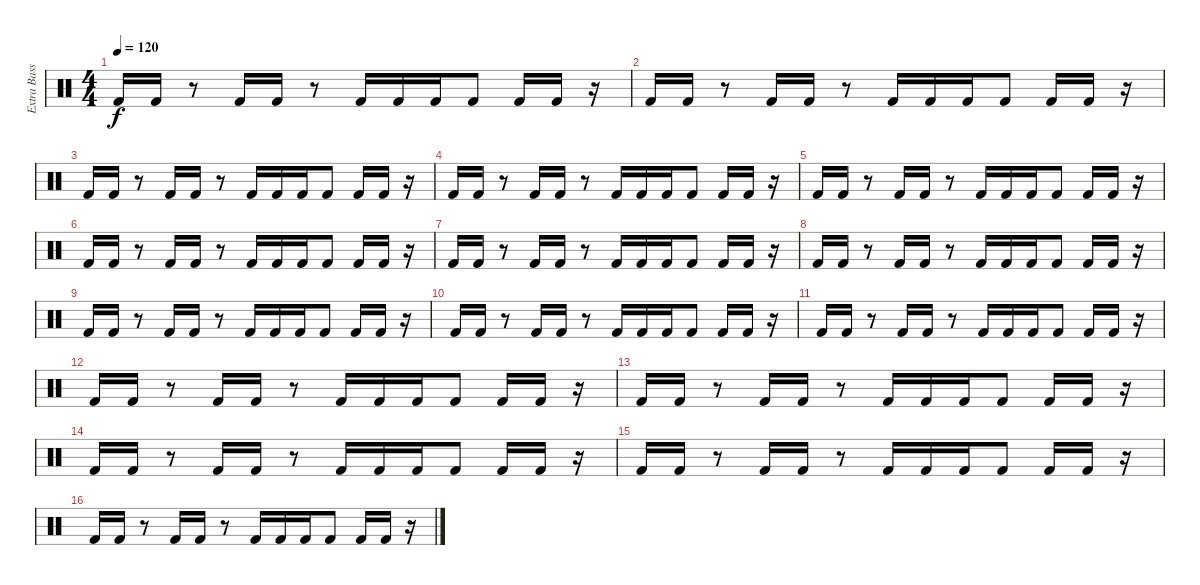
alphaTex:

\track ("Extra Bass Drum" "Extra Bass") {instrument percussion}
\staff {score}
\articulation defaults
\ts (4 4)
\tempo 120
\clef neutral
\ks c "Kick (hit) 2".16{dy f} "Kick (hit) 2".16
r.8 "Kick (hit) 2".16 "Kick (hit) 2".16 r.8 "Kick (hit) 2".16 "Kick (hit) 2".16 "Kick (hit) 2".16 "Kick (hit) 2".8 "Kick (hit) 2".16 "Kick (hit) 2".16 r.16 |
"Kick (hit) 2".16 "Kick (hit) 2".16 r.8 "Kick (hit) 2".16 "Kick (hit) 2".16 r.8 "Kick (hit) 2".16 "Kick (hit) 2".16 "Kick (hit) 2".16 "Kick (hit) 2".8 "Kick (hit) 2".16 "Kick (hit) 2".16 r.16 |
"Kick (hit) 2".16 "Kick (hit) 2".16 r.8 "Kick (hit) 2".16 "Kick (hit) 2".16 r.8 "Kick (hit) 2".16 "Kick (hit) 2".16 "Kick (hit) 2".16 "Kick (hit) 2".8 "Kick (hit) 2".16 "Kick (hit) 2".16 r.16 |
"Kick (hit) 2".16 "Kick (hit) 2".16 r.8 "Kick (hit) 2".16 "Kick (hit) 2".16 r.8 "Kick (hit) 2".16 "Kick (hit) 2".16 "Kick (hit) 2".16 "Kick (hit) 2".8 "Kick (hit) 2".16 "Kick (hit) 2".16 r.16 |
"Kick (hit) 2".16 "Kick (hit) 2".16 r.8 "Kick (hit) 2".16 "Kick (hit) 2".16 r.8 "Kick (hit) 2".16 "Kick (hit) 2".16 "Kick (hit) 2".16 "Kick (hit) 2".8 "Kick (hit) 2".16 "Kick (hit) 2".16 r.16 |
"Kick (hit) 2".16 "Kick (hit) 2".16 r.8 "Kick (hit) 2".16 "Kick (hit) 2".16 r.8 "Kick (hit) 2".16 "Kick (hit) 2".16 "Kick (hit) 2".16 "Kick (hit) 2".8 "Kick (hit) 2".16 "Kick (hit) 2".16 r.16 |
"Kick (hit) 2".16 "Kick (hit) 2".16 r.8 "Kick (hit) 2".16 "Kick (hit) 2".16 r.8 "Kick (hit) 2".16 "Kick (hit) 2".16 "Kick (hit) 2".16 "Kick (hit) 2".8 "Kick (hit) 2".16 "Kick (hit) 2".16 r.16 |
"Kick (hit) 2".16 "Kick (hit) 2".16 r.8 "Kick (hit) 2".16 "Kick (hit) 2".16 r.8 "Kick (hit) 2".16 "Kick (hit) 2".16 "Kick (hit) 2".16 "Kick (hit) 2".8 "Kick (hit) 2".16 "Kick (hit) 2".16 r.16 |
"Kick (hit) 2".16 "Kick (hit) 2".16 r.8 "Kick (hit) 2".16 "Kick (hit) 2".16 r.8 "Kick (hit) 2".16 "Kick (hit) 2".16 "Kick (hit) 2".16 "Kick (hit) 2".8 "Kick (hit) 2".16 "Kick (hit) 2".16 r.16 |
"Kick (hit) 2".16 "Kick (hit) 2".16 r.8 "Kick (hit) 2".16 "Kick (hit) 2".16 r.8 "Kick (hit) 2".16 "Kick (hit) 2".16 "Kick (hit) 2".16 "Kick (hit) 2".8 "Kick (hit) 2".16 "Kick (hit) 2".16 r.16 |
"Kick (hit) 2".16 "Kick (hit) 2".16 r.8 "Kick (hit) 2".16 "Kick (hit) 2".16 r.8 "Kick (hit) 2".16 "Kick (hit) 2".16 "Kick (hit) 2".16 "Kick (hit) 2".8 "Kick (hit) 2".16 "Kick (hit) 2".16 r.16 |
"Kick (hit) 2".16 "Kick (hit) 2".16 r.8 "Kick (hit) 2".16 "Kick (hit) 2".16 r.8 "Kick (hit) 2".16 "Kick (hit) 2".16 "Kick (hit) 2".16 "Kick (hit) 2".8 "Kick (hit) 2".16 "Kick (hit) 2".16 r.16 |
"Kick (hit) 2".16 "Kick (hit) 2".16 r.8 "Kick (hit) 2".16 "Kick (hit) 2".16 r.8 "Kick (hit) 2".16 "Kick (hit) 2".16 "Kick (hit) 2".16 "Kick (hit) 2".8 "Kick (hit) 2".16 "Kick (hit) 2".16 r.16 |
"Kick (hit) 2".16 "Kick (hit) 2".16 r.8 "Kick (hit) 2".16 "Kick (hit) 2".16 r.8 "Kick (hit) 2".16 "Kick (hit) 2".16 "Kick (hit) 2".16 "Kick (hit) 2".8 "Kick (hit) 2".16 "Kick (hit) 2".16 r.16 |
"Kick (hit) 2".16 "Kick (hit) 2".16 r.8 "Kick (hit) 2".16 "Kick (hit) 2".16 r.8 "Kick (hit) 2".16 "Kick (hit) 2".16 "Kick (hit) 2".16 "Kick (hit) 2".8 "Kick (hit) 2".16 "Kick (hit) 2".16 r.16 |
"Kick (hit) 2".16 "Kick (hit) 2".16 r.8 "Kick (hit) 2".16 "Kick (hit) 2".16 r.8 "Kick (hit) 2".16 "Kick (hit) 2".16 "Kick (hit) 2".16 "Kick (hit) 2".8 "Kick (hit) 2".16 "Kick (hit) 2".16 r.16
